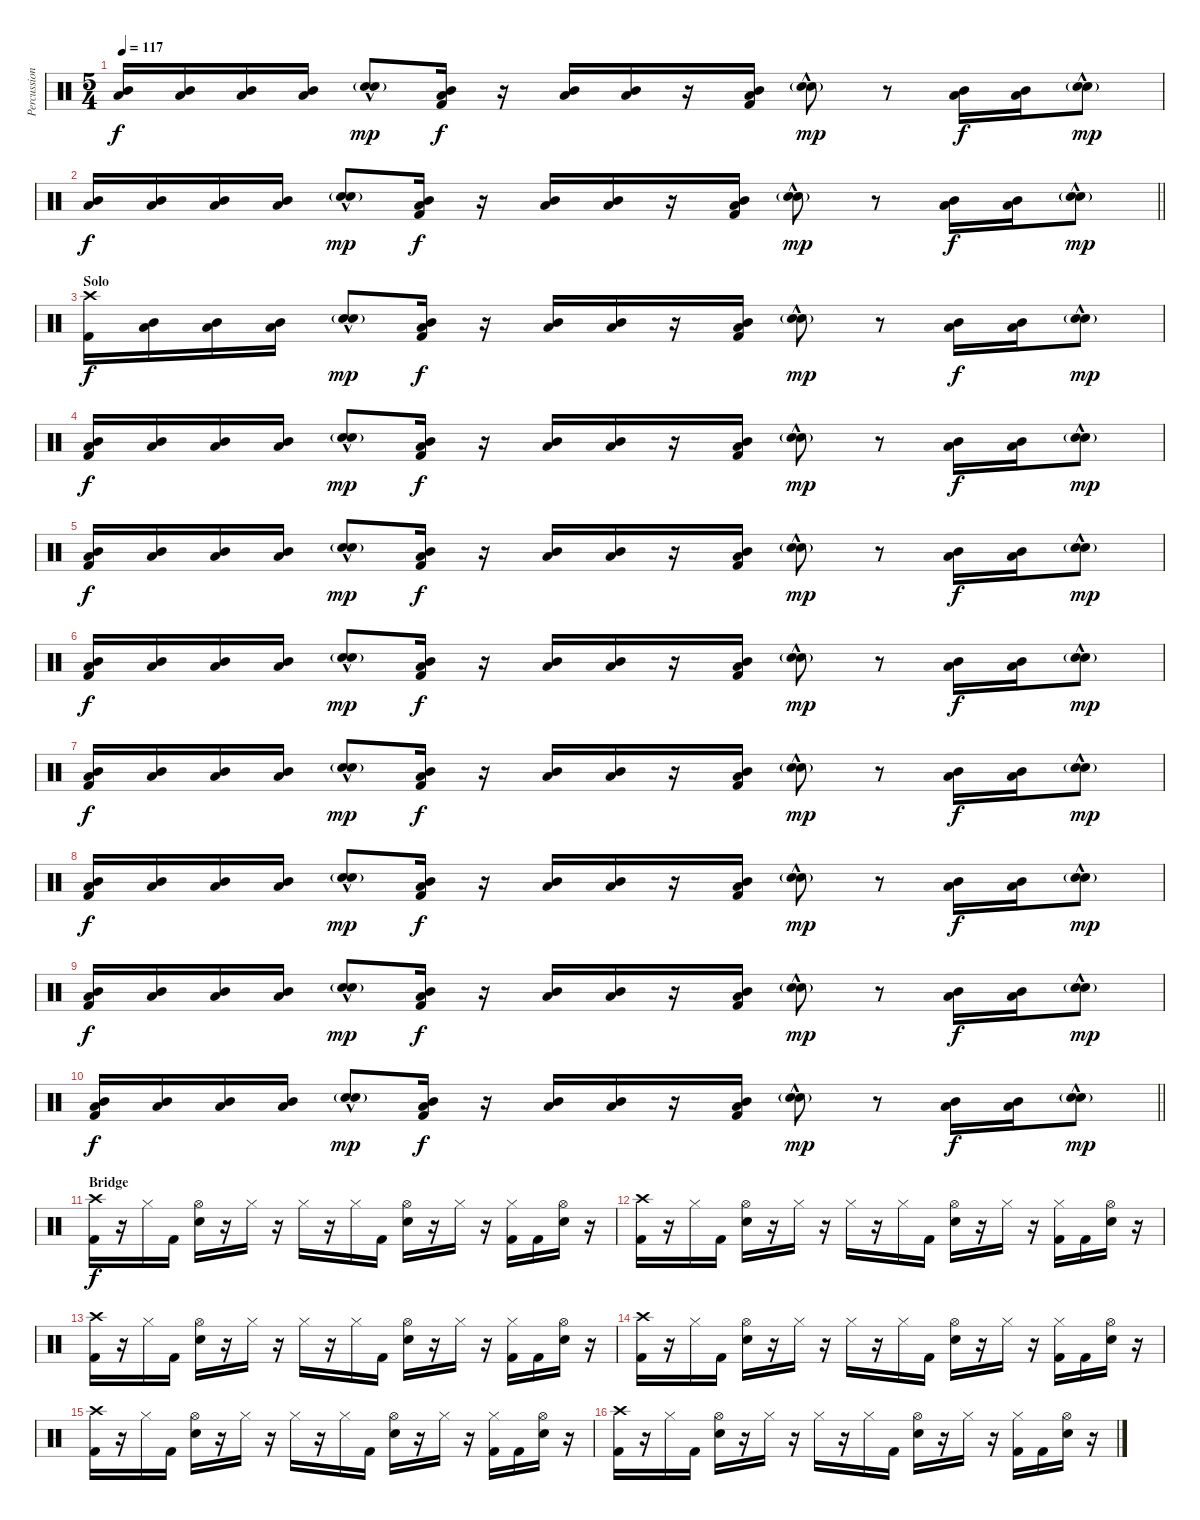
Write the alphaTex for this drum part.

\track ("Percussion" "Percussion") {instrument percussion}
\staff {score}
\articulation defaults
\ts (5 4)
\tempo 117
\clef neutral
\ks c
("Mid Tom (hit)" "Low Tom (hit)").16{dy f} ("Mid Tom (hit)" "Low Tom (hit)").16 ("Mid Tom (hit)" "Low Tom (hit)").16 ("Mid Tom (hit)" "Low Tom (hit)").16 ("Electric Snare (hit)"{hac} "Snare (hit) 2"{g}).8{dy mp} ("Mid Tom (hit)" "Low Tom (hit)" "Kick (hit) 2").16{dy f} r.16 ("Mid Tom (hit)" "Low Tom (hit)").16 ("Mid Tom (hit)" "Low Tom (hit)").16 r.16 ("Mid Tom (hit)" "Low Tom (hit)" "Kick (hit) 2").16 ("Electric Snare (hit)"{hac} "Snare (hit) 2"{g}).8{dy mp} r.8 ("Mid Tom (hit)" "Low Tom (hit)").16{dy f} ("Mid Tom (hit)" "Low Tom (hit)").16 ("Electric Snare (hit)"{hac} "Snare (hit) 2"{g}).8{dy mp} |
\barLineRight lightlight
("Mid Tom (hit)" "Low Tom (hit)").16{dy f} ("Mid Tom (hit)" "Low Tom (hit)").16 ("Mid Tom (hit)" "Low Tom (hit)").16 ("Mid Tom (hit)" "Low Tom (hit)").16 ("Electric Snare (hit)"{hac} "Snare (hit) 2"{g}).8{dy mp} ("Mid Tom (hit)" "Low Tom (hit)" "Kick (hit) 2").16{dy f} r.16 ("Mid Tom (hit)" "Low Tom (hit)").16 ("Mid Tom (hit)" "Low Tom (hit)").16 r.16 ("Mid Tom (hit)" "Low Tom (hit)" "Kick (hit) 2").16 ("Electric Snare (hit)"{hac} "Snare (hit) 2"{g}).8{dy mp} r.8 ("Mid Tom (hit)" "Low Tom (hit)").16{dy f} ("Mid Tom (hit)" "Low Tom (hit)").16 ("Electric Snare (hit)"{hac} "Snare (hit) 2"{g}).8{dy mp} |
\section ("" "Solo")
("Crash high (hit)" "Kick (hit) 2").16{dy f} ("Mid Tom (hit)" "Low Tom (hit)").16 ("Mid Tom (hit)" "Low Tom (hit)").16 ("Mid Tom (hit)" "Low Tom (hit)").16 ("Electric Snare (hit)"{hac} "Snare (hit) 2"{g}).8{dy mp} ("Mid Tom (hit)" "Low Tom (hit)" "Kick (hit) 2").16{dy f} r.16 ("Mid Tom (hit)" "Low Tom (hit)").16 ("Mid Tom (hit)" "Low Tom (hit)").16 r.16 ("Mid Tom (hit)" "Low Tom (hit)" "Kick (hit) 2").16 ("Electric Snare (hit)"{hac} "Snare (hit) 2"{g}).8{dy mp} r.8 ("Mid Tom (hit)" "Low Tom (hit)").16{dy f} ("Mid Tom (hit)" "Low Tom (hit)").16 ("Electric Snare (hit)"{hac} "Snare (hit) 2"{g}).8{dy mp} |
("Mid Tom (hit)" "Low Tom (hit)" "Kick (hit) 2").16{dy f} ("Mid Tom (hit)" "Low Tom (hit)").16 ("Mid Tom (hit)" "Low Tom (hit)").16 ("Mid Tom (hit)" "Low Tom (hit)").16 ("Electric Snare (hit)"{hac} "Snare (hit) 2"{g}).8{dy mp} ("Mid Tom (hit)" "Low Tom (hit)" "Kick (hit) 2").16{dy f} r.16 ("Mid Tom (hit)" "Low Tom (hit)").16 ("Mid Tom (hit)" "Low Tom (hit)").16 r.16 ("Mid Tom (hit)" "Low Tom (hit)" "Kick (hit) 2").16 ("Electric Snare (hit)"{hac} "Snare (hit) 2"{g}).8{dy mp} r.8 ("Mid Tom (hit)" "Low Tom (hit)").16{dy f} ("Mid Tom (hit)" "Low Tom (hit)").16 ("Electric Snare (hit)"{hac} "Snare (hit) 2"{g}).8{dy mp} |
("Mid Tom (hit)" "Low Tom (hit)" "Kick (hit) 2").16{dy f} ("Mid Tom (hit)" "Low Tom (hit)").16 ("Mid Tom (hit)" "Low Tom (hit)").16 ("Mid Tom (hit)" "Low Tom (hit)").16 ("Electric Snare (hit)"{hac} "Snare (hit) 2"{g}).8{dy mp} ("Mid Tom (hit)" "Low Tom (hit)" "Kick (hit) 2").16{dy f} r.16 ("Mid Tom (hit)" "Low Tom (hit)").16 ("Mid Tom (hit)" "Low Tom (hit)").16 r.16 ("Mid Tom (hit)" "Low Tom (hit)" "Kick (hit) 2").16 ("Electric Snare (hit)"{hac} "Snare (hit) 2"{g}).8{dy mp} r.8 ("Mid Tom (hit)" "Low Tom (hit)").16{dy f} ("Mid Tom (hit)" "Low Tom (hit)").16 ("Electric Snare (hit)"{hac} "Snare (hit) 2"{g}).8{dy mp} |
("Mid Tom (hit)" "Low Tom (hit)" "Kick (hit) 2").16{dy f} ("Mid Tom (hit)" "Low Tom (hit)").16 ("Mid Tom (hit)" "Low Tom (hit)").16 ("Mid Tom (hit)" "Low Tom (hit)").16 ("Electric Snare (hit)"{hac} "Snare (hit) 2"{g}).8{dy mp} ("Mid Tom (hit)" "Low Tom (hit)" "Kick (hit) 2").16{dy f} r.16 ("Mid Tom (hit)" "Low Tom (hit)").16 ("Mid Tom (hit)" "Low Tom (hit)").16 r.16 ("Mid Tom (hit)" "Low Tom (hit)" "Kick (hit) 2").16 ("Electric Snare (hit)"{hac} "Snare (hit) 2"{g}).8{dy mp} r.8 ("Mid Tom (hit)" "Low Tom (hit)").16{dy f} ("Mid Tom (hit)" "Low Tom (hit)").16 ("Electric Snare (hit)"{hac} "Snare (hit) 2"{g}).8{dy mp} |
("Mid Tom (hit)" "Low Tom (hit)" "Kick (hit) 2").16{dy f} ("Mid Tom (hit)" "Low Tom (hit)").16 ("Mid Tom (hit)" "Low Tom (hit)").16 ("Mid Tom (hit)" "Low Tom (hit)").16 ("Electric Snare (hit)"{hac} "Snare (hit) 2"{g}).8{dy mp} ("Mid Tom (hit)" "Low Tom (hit)" "Kick (hit) 2").16{dy f} r.16 ("Mid Tom (hit)" "Low Tom (hit)").16 ("Mid Tom (hit)" "Low Tom (hit)").16 r.16 ("Mid Tom (hit)" "Low Tom (hit)" "Kick (hit) 2").16 ("Electric Snare (hit)"{hac} "Snare (hit) 2"{g}).8{dy mp} r.8 ("Mid Tom (hit)" "Low Tom (hit)").16{dy f} ("Mid Tom (hit)" "Low Tom (hit)").16 ("Electric Snare (hit)"{hac} "Snare (hit) 2"{g}).8{dy mp} |
("Mid Tom (hit)" "Low Tom (hit)" "Kick (hit) 2").16{dy f} ("Mid Tom (hit)" "Low Tom (hit)").16 ("Mid Tom (hit)" "Low Tom (hit)").16 ("Mid Tom (hit)" "Low Tom (hit)").16 ("Electric Snare (hit)"{hac} "Snare (hit) 2"{g}).8{dy mp} ("Mid Tom (hit)" "Low Tom (hit)" "Kick (hit) 2").16{dy f} r.16 ("Mid Tom (hit)" "Low Tom (hit)").16 ("Mid Tom (hit)" "Low Tom (hit)").16 r.16 ("Mid Tom (hit)" "Low Tom (hit)" "Kick (hit) 2").16 ("Electric Snare (hit)"{hac} "Snare (hit) 2"{g}).8{dy mp} r.8 ("Mid Tom (hit)" "Low Tom (hit)").16{dy f} ("Mid Tom (hit)" "Low Tom (hit)").16 ("Electric Snare (hit)"{hac} "Snare (hit) 2"{g}).8{dy mp} |
("Mid Tom (hit)" "Low Tom (hit)" "Kick (hit) 2").16{dy f} ("Mid Tom (hit)" "Low Tom (hit)").16 ("Mid Tom (hit)" "Low Tom (hit)").16 ("Mid Tom (hit)" "Low Tom (hit)").16 ("Electric Snare (hit)"{hac} "Snare (hit) 2"{g}).8{dy mp} ("Mid Tom (hit)" "Low Tom (hit)" "Kick (hit) 2").16{dy f} r.16 ("Mid Tom (hit)" "Low Tom (hit)").16 ("Mid Tom (hit)" "Low Tom (hit)").16 r.16 ("Mid Tom (hit)" "Low Tom (hit)" "Kick (hit) 2").16 ("Electric Snare (hit)"{hac} "Snare (hit) 2"{g}).8{dy mp} r.8 ("Mid Tom (hit)" "Low Tom (hit)").16{dy f} ("Mid Tom (hit)" "Low Tom (hit)").16 ("Electric Snare (hit)"{hac} "Snare (hit) 2"{g}).8{dy mp} |
\barLineRight lightlight
("Mid Tom (hit)" "Low Tom (hit)" "Kick (hit) 2").16{dy f} ("Mid Tom (hit)" "Low Tom (hit)").16 ("Mid Tom (hit)" "Low Tom (hit)").16 ("Mid Tom (hit)" "Low Tom (hit)").16 ("Electric Snare (hit)"{hac} "Snare (hit) 2"{g}).8{dy mp} ("Mid Tom (hit)" "Low Tom (hit)" "Kick (hit) 2").16{dy f} r.16 ("Mid Tom (hit)" "Low Tom (hit)").16 ("Mid Tom (hit)" "Low Tom (hit)").16 r.16 ("Mid Tom (hit)" "Low Tom (hit)" "Kick (hit) 2").16 ("Electric Snare (hit)"{hac} "Snare (hit) 2"{g}).8{dy mp} r.8 ("Mid Tom (hit)" "Low Tom (hit)").16{dy f} ("Mid Tom (hit)" "Low Tom (hit)").16 ("Electric Snare (hit)"{hac} "Snare (hit) 2"{g}).8{dy mp} |
\section ("" "Bridge")
("Crash high (hit)" "Kick (hit) 2").16{dy f} r.16 "Hi-Hat (closed)".16 "Kick (hit) 2".16 ("Hi-Hat (open)" "Electric Snare (hit)").16 r.16 "Hi-Hat (closed)".16 r.16 "Hi-Hat (closed)".16 r.16 "Hi-Hat (closed)".16 "Kick (hit) 2".16 ("Hi-Hat (open)" "Electric Snare (hit)").16 r.16 "Hi-Hat (closed)".16 r.16 ("Hi-Hat (closed)" "Kick (hit) 2").16 "Kick (hit) 2".16 ("Hi-Hat (open)" "Electric Snare (hit)").16 r.16 |
("Crash high (hit)" "Kick (hit) 2").16 r.16 "Hi-Hat (closed)".16 "Kick (hit) 2".16 ("Hi-Hat (open)" "Electric Snare (hit)").16 r.16 "Hi-Hat (closed)".16 r.16 "Hi-Hat (closed)".16 r.16 "Hi-Hat (closed)".16 "Kick (hit) 2".16 ("Hi-Hat (open)" "Electric Snare (hit)").16 r.16 "Hi-Hat (closed)".16 r.16 ("Hi-Hat (closed)" "Kick (hit) 2").16 "Kick (hit) 2".16 ("Hi-Hat (open)" "Electric Snare (hit)").16 r.16 |
("Crash high (hit)" "Kick (hit) 2").16 r.16 "Hi-Hat (closed)".16 "Kick (hit) 2".16 ("Hi-Hat (open)" "Electric Snare (hit)").16 r.16 "Hi-Hat (closed)".16 r.16 "Hi-Hat (closed)".16 r.16 "Hi-Hat (closed)".16 "Kick (hit) 2".16 ("Hi-Hat (open)" "Electric Snare (hit)").16 r.16 "Hi-Hat (closed)".16 r.16 ("Hi-Hat (closed)" "Kick (hit) 2").16 "Kick (hit) 2".16 ("Hi-Hat (open)" "Electric Snare (hit)").16 r.16 |
("Crash high (hit)" "Kick (hit) 2").16 r.16 "Hi-Hat (closed)".16 "Kick (hit) 2".16 ("Hi-Hat (open)" "Electric Snare (hit)").16 r.16 "Hi-Hat (closed)".16 r.16 "Hi-Hat (closed)".16 r.16 "Hi-Hat (closed)".16 "Kick (hit) 2".16 ("Hi-Hat (open)" "Electric Snare (hit)").16 r.16 "Hi-Hat (closed)".16 r.16 ("Hi-Hat (closed)" "Kick (hit) 2").16 "Kick (hit) 2".16 ("Hi-Hat (open)" "Electric Snare (hit)").16 r.16 |
("Crash high (hit)" "Kick (hit) 2").16 r.16 "Hi-Hat (closed)".16 "Kick (hit) 2".16 ("Hi-Hat (open)" "Electric Snare (hit)").16 r.16 "Hi-Hat (closed)".16 r.16 "Hi-Hat (closed)".16 r.16 "Hi-Hat (closed)".16 "Kick (hit) 2".16 ("Hi-Hat (open)" "Electric Snare (hit)").16 r.16 "Hi-Hat (closed)".16 r.16 ("Hi-Hat (closed)" "Kick (hit) 2").16 "Kick (hit) 2".16 ("Hi-Hat (open)" "Electric Snare (hit)").16 r.16 |
("Crash high (hit)" "Kick (hit) 2").16 r.16 "Hi-Hat (closed)".16 "Kick (hit) 2".16 ("Hi-Hat (open)" "Electric Snare (hit)").16 r.16 "Hi-Hat (closed)".16 r.16 "Hi-Hat (closed)".16 r.16 "Hi-Hat (closed)".16 "Kick (hit) 2".16 ("Hi-Hat (open)" "Electric Snare (hit)").16 r.16 "Hi-Hat (closed)".16 r.16 ("Hi-Hat (closed)" "Kick (hit) 2").16 "Kick (hit) 2".16 ("Hi-Hat (open)" "Electric Snare (hit)").16 r.16
